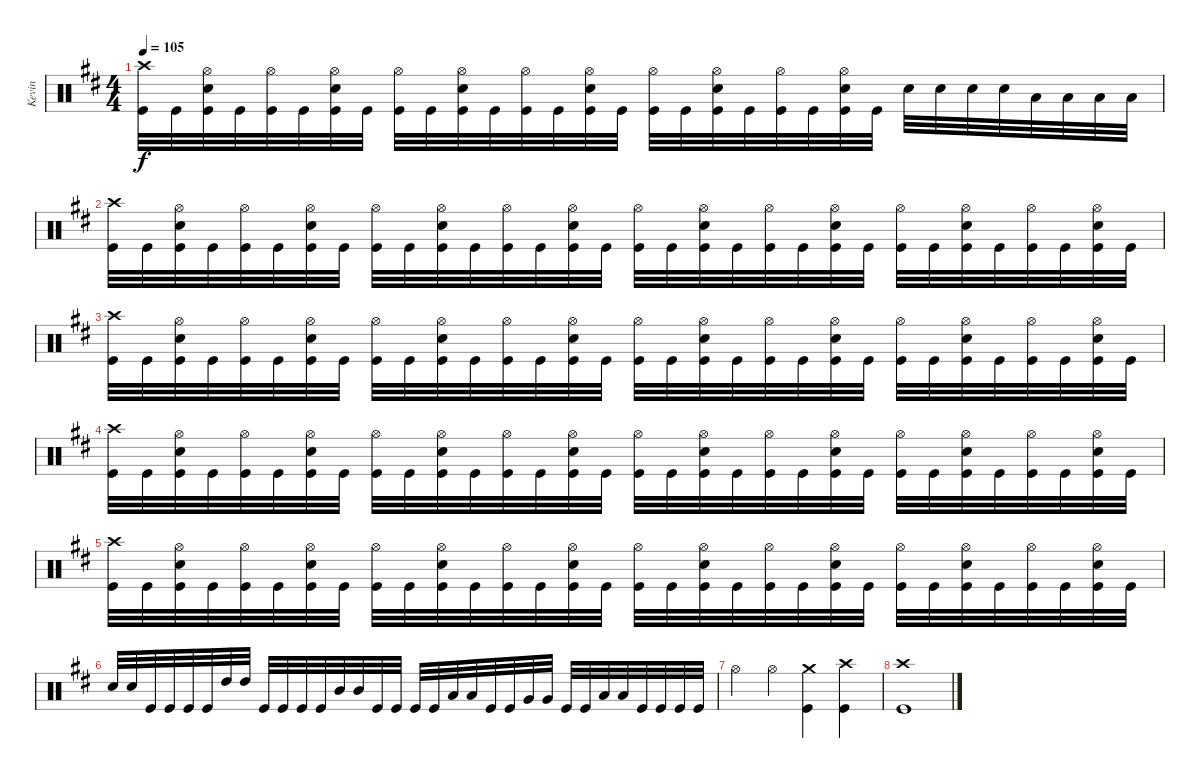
\track ("Kevin" "Kevin") {instrument percussion}
\staff {score}
\articulation defaults
\ts (4 4)
\tempo 105
\clef neutral
\ks d
("Crash high (hit)" "Kick (hit)").32{dy f} "Kick (hit)".32 ("Hi-Hat (open)" "Snare (hit) 2" "Kick (hit)").32 "Kick (hit)".32 ("Hi-Hat (open)" "Kick (hit)").32 "Kick (hit)".32 ("Hi-Hat (open)" "Snare (hit) 2" "Kick (hit)").32 "Kick (hit)".32 ("Hi-Hat (open)" "Kick (hit)").32 "Kick (hit)".32 ("Hi-Hat (open)" "Snare (hit) 2" "Kick (hit)").32 "Kick (hit)".32 ("Hi-Hat (open)" "Kick (hit)").32 "Kick (hit)".32 ("Hi-Hat (open)" "Snare (hit) 2" "Kick (hit)").32 "Kick (hit)".32 ("Hi-Hat (open)" "Kick (hit)").32 "Kick (hit)".32 ("Hi-Hat (open)" "Snare (hit) 2" "Kick (hit)").32 "Kick (hit)".32 ("Hi-Hat (open)" "Kick (hit)").32 "Kick (hit)".32 ("Hi-Hat (open)" "Snare (hit) 2" "Kick (hit)").32 "Kick (hit)".32 "Snare (hit) 2".32 "Snare (hit) 2".32 "Snare (hit) 2".32 "Snare (hit) 2".32 "Low Tom (hit)".32 "Low Tom (hit)".32 "Low Tom (hit)".32 "Low Tom (hit)".32 |
("Crash high (hit)" "Kick (hit)").32 "Kick (hit)".32 ("Hi-Hat (open)" "Snare (hit) 2" "Kick (hit)").32 "Kick (hit)".32 ("Hi-Hat (open)" "Kick (hit)").32 "Kick (hit)".32 ("Hi-Hat (open)" "Snare (hit) 2" "Kick (hit)").32 "Kick (hit)".32 ("Hi-Hat (open)" "Kick (hit)").32 "Kick (hit)".32 ("Hi-Hat (open)" "Snare (hit) 2" "Kick (hit)").32 "Kick (hit)".32 ("Hi-Hat (open)" "Kick (hit)").32 "Kick (hit)".32 ("Hi-Hat (open)" "Snare (hit) 2" "Kick (hit)").32 "Kick (hit)".32 ("Hi-Hat (open)" "Kick (hit)").32 "Kick (hit)".32 ("Hi-Hat (open)" "Snare (hit) 2" "Kick (hit)").32 "Kick (hit)".32 ("Hi-Hat (open)" "Kick (hit)").32 "Kick (hit)".32 ("Hi-Hat (open)" "Snare (hit) 2" "Kick (hit)").32 "Kick (hit)".32 ("Hi-Hat (open)" "Kick (hit)").32 "Kick (hit)".32 ("Hi-Hat (open)" "Snare (hit) 2" "Kick (hit)").32 "Kick (hit)".32 ("Hi-Hat (open)" "Kick (hit)").32 "Kick (hit)".32 ("Hi-Hat (open)" "Snare (hit) 2" "Kick (hit)").32 "Kick (hit)".32 |
("Crash high (hit)" "Kick (hit)").32 "Kick (hit)".32 ("Hi-Hat (open)" "Snare (hit) 2" "Kick (hit)").32 "Kick (hit)".32 ("Hi-Hat (open)" "Kick (hit)").32 "Kick (hit)".32 ("Hi-Hat (open)" "Snare (hit) 2" "Kick (hit)").32 "Kick (hit)".32 ("Hi-Hat (open)" "Kick (hit)").32 "Kick (hit)".32 ("Hi-Hat (open)" "Snare (hit) 2" "Kick (hit)").32 "Kick (hit)".32 ("Hi-Hat (open)" "Kick (hit)").32 "Kick (hit)".32 ("Hi-Hat (open)" "Snare (hit) 2" "Kick (hit)").32 "Kick (hit)".32 ("Hi-Hat (open)" "Kick (hit)").32 "Kick (hit)".32 ("Hi-Hat (open)" "Snare (hit) 2" "Kick (hit)").32 "Kick (hit)".32 ("Hi-Hat (open)" "Kick (hit)").32 "Kick (hit)".32 ("Hi-Hat (open)" "Snare (hit) 2" "Kick (hit)").32 "Kick (hit)".32 ("Hi-Hat (open)" "Kick (hit)").32 "Kick (hit)".32 ("Hi-Hat (open)" "Snare (hit) 2" "Kick (hit)").32 "Kick (hit)".32 ("Hi-Hat (open)" "Kick (hit)").32 "Kick (hit)".32 ("Hi-Hat (open)" "Snare (hit) 2" "Kick (hit)").32 "Kick (hit)".32 |
("Crash high (hit)" "Kick (hit)").32 "Kick (hit)".32 ("Hi-Hat (open)" "Snare (hit) 2" "Kick (hit)").32 "Kick (hit)".32 ("Hi-Hat (open)" "Kick (hit)").32 "Kick (hit)".32 ("Hi-Hat (open)" "Snare (hit) 2" "Kick (hit)").32 "Kick (hit)".32 ("Hi-Hat (open)" "Kick (hit)").32 "Kick (hit)".32 ("Hi-Hat (open)" "Snare (hit) 2" "Kick (hit)").32 "Kick (hit)".32 ("Hi-Hat (open)" "Kick (hit)").32 "Kick (hit)".32 ("Hi-Hat (open)" "Snare (hit) 2" "Kick (hit)").32 "Kick (hit)".32 ("Hi-Hat (open)" "Kick (hit)").32 "Kick (hit)".32 ("Hi-Hat (open)" "Snare (hit) 2" "Kick (hit)").32 "Kick (hit)".32 ("Hi-Hat (open)" "Kick (hit)").32 "Kick (hit)".32 ("Hi-Hat (open)" "Snare (hit) 2" "Kick (hit)").32 "Kick (hit)".32 ("Hi-Hat (open)" "Kick (hit)").32 "Kick (hit)".32 ("Hi-Hat (open)" "Snare (hit) 2" "Kick (hit)").32 "Kick (hit)".32 ("Hi-Hat (open)" "Kick (hit)").32 "Kick (hit)".32 ("Hi-Hat (open)" "Snare (hit) 2" "Kick (hit)").32 "Kick (hit)".32 |
("Crash high (hit)" "Kick (hit)").32 "Kick (hit)".32 ("Hi-Hat (open)" "Snare (hit) 2" "Kick (hit)").32 "Kick (hit)".32 ("Hi-Hat (open)" "Kick (hit)").32 "Kick (hit)".32 ("Hi-Hat (open)" "Snare (hit) 2" "Kick (hit)").32 "Kick (hit)".32 ("Hi-Hat (open)" "Kick (hit)").32 "Kick (hit)".32 ("Hi-Hat (open)" "Snare (hit) 2" "Kick (hit)").32 "Kick (hit)".32 ("Hi-Hat (open)" "Kick (hit)").32 "Kick (hit)".32 ("Hi-Hat (open)" "Snare (hit) 2" "Kick (hit)").32 "Kick (hit)".32 ("Hi-Hat (open)" "Kick (hit)").32 "Kick (hit)".32 ("Hi-Hat (open)" "Snare (hit) 2" "Kick (hit)").32 "Kick (hit)".32 ("Hi-Hat (open)" "Kick (hit)").32 "Kick (hit)".32 ("Hi-Hat (open)" "Snare (hit) 2" "Kick (hit)").32 "Kick (hit)".32 ("Hi-Hat (open)" "Kick (hit)").32 "Kick (hit)".32 ("Hi-Hat (open)" "Snare (hit) 2" "Kick (hit)").32 "Kick (hit)".32 ("Hi-Hat (open)" "Kick (hit)").32 "Kick (hit)".32 ("Hi-Hat (open)" "Snare (hit) 2" "Kick (hit)").32 "Kick (hit)".32 |
"Snare (hit) 2".32 "Snare (hit) 2".32 "Kick (hit)".32 "Kick (hit)".32 "Kick (hit)".32 "Kick (hit)".32 "High Tom (hit)".32 "High Tom (hit)".32 "Kick (hit)".32 "Kick (hit)".32 "Kick (hit)".32 "Kick (hit)".32 "Mid Tom (hit)".32 "Mid Tom (hit)".32 "Kick (hit)".32 "Kick (hit)".32 "Kick (hit)".32 "Kick (hit)".32 "Low Tom (hit)".32 "Low Tom (hit)".32 "Kick (hit)".32 "Kick (hit)".32 "Very Low Tom (hit)".32 "Very Low Tom (hit)".32 "Kick (hit)".32 "Kick (hit)".32 "Low Floor Tom (hit)".32 "Low Floor Tom (hit)".32 "Kick (hit)".32 "Kick (hit)".32 "Kick (hit)".32 "Kick (hit)".32 |
"Hi-Hat (open)".4 "Hi-Hat (open)".4 ("Crash medium (hit)" "Kick (hit)").4 ("Crash high (hit)" "Kick (hit)").4 |
("Crash high (hit)" "Kick (hit)").1
